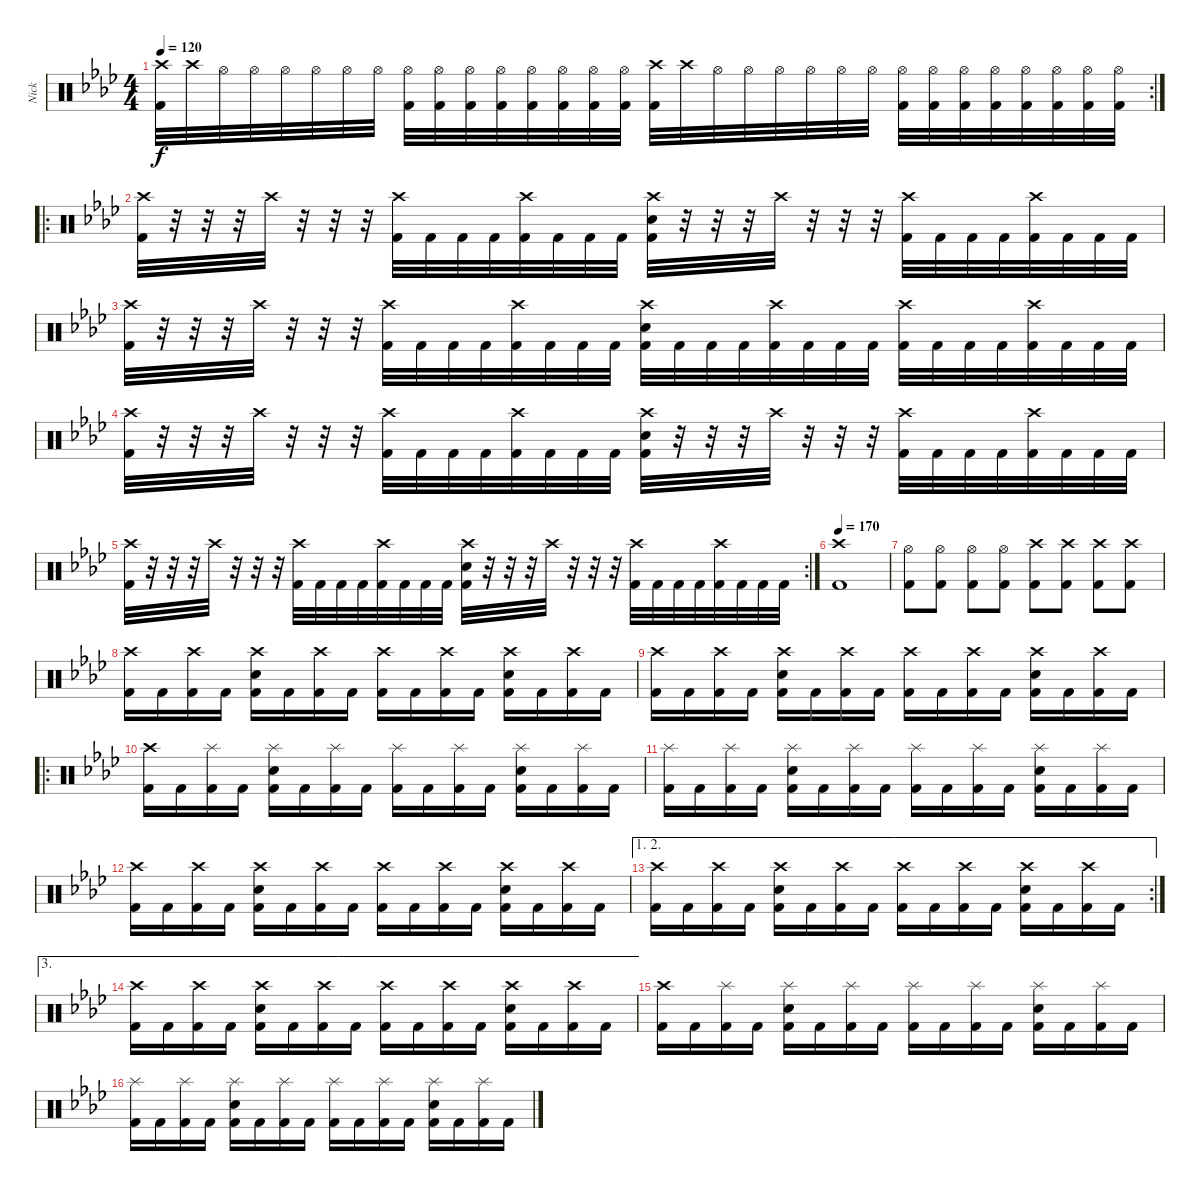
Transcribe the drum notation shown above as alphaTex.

\track ("Nick" "Nick") {instrument percussion}
\staff {score}
\articulation defaults
\rc 2
\ts (4 4)
\tempo 120
\clef neutral
\ks ab
("Crash high (hit)" "Kick (hit) 2").32{dy f} "Crash high (hit)".32 "Hi-Hat (open)".32 "Hi-Hat (open)".32 "Hi-Hat (open)".32 "Hi-Hat (open)".32 "Hi-Hat (open)".32 "Hi-Hat (open)".32 ("Hi-Hat (open)" "Kick (hit) 2").32 ("Hi-Hat (open)" "Kick (hit) 2").32 ("Hi-Hat (open)" "Kick (hit) 2").32 ("Hi-Hat (open)" "Kick (hit) 2").32 ("Hi-Hat (open)" "Kick (hit) 2").32 ("Hi-Hat (open)" "Kick (hit) 2").32 ("Hi-Hat (open)" "Kick (hit) 2").32 ("Hi-Hat (open)" "Kick (hit) 2").32 ("Crash high (hit)" "Kick (hit) 2").32 "Crash high (hit)".32 "Hi-Hat (open)".32 "Hi-Hat (open)".32 "Hi-Hat (open)".32 "Hi-Hat (open)".32 "Hi-Hat (open)".32 "Hi-Hat (open)".32 ("Hi-Hat (open)" "Kick (hit) 2").32 ("Hi-Hat (open)" "Kick (hit) 2").32 ("Hi-Hat (open)" "Kick (hit) 2").32 ("Hi-Hat (open)" "Kick (hit) 2").32 ("Hi-Hat (open)" "Kick (hit) 2").32 ("Hi-Hat (open)" "Kick (hit) 2").32 ("Hi-Hat (open)" "Kick (hit) 2").32 ("Hi-Hat (open)" "Kick (hit) 2").32 |
\ro
("Crash high (hit)" "Kick (hit) 2").32 r.32 r.32 r.32 "Crash high (hit)".32 r.32 r.32 r.32 ("Crash high (hit)" "Kick (hit) 2").32 "Kick (hit) 2".32 "Kick (hit) 2".32 "Kick (hit) 2".32 ("Crash high (hit)" "Kick (hit) 2").32 "Kick (hit) 2".32 "Kick (hit) 2".32 "Kick (hit) 2".32 ("Crash high (hit)" "Snare (hit) 2" "Kick (hit) 2").32 r.32 r.32 r.32 "Crash high (hit)".32 r.32 r.32 r.32 ("Crash high (hit)" "Kick (hit) 2").32 "Kick (hit) 2".32 "Kick (hit) 2".32 "Kick (hit) 2".32 ("Crash high (hit)" "Kick (hit) 2").32 "Kick (hit) 2".32 "Kick (hit) 2".32 "Kick (hit) 2".32 |
("Crash high (hit)" "Kick (hit) 2").32 r.32 r.32 r.32 "Crash high (hit)".32 r.32 r.32 r.32 ("Crash high (hit)" "Kick (hit) 2").32 "Kick (hit) 2".32 "Kick (hit) 2".32 "Kick (hit) 2".32 ("Crash high (hit)" "Kick (hit) 2").32 "Kick (hit) 2".32 "Kick (hit) 2".32 "Kick (hit) 2".32 ("Crash high (hit)" "Snare (hit) 2" "Kick (hit) 2").32 "Kick (hit) 2".32 "Kick (hit) 2".32 "Kick (hit) 2".32 ("Crash high (hit)" "Kick (hit) 2").32 "Kick (hit) 2".32 "Kick (hit) 2".32 "Kick (hit) 2".32 ("Crash high (hit)" "Kick (hit) 2").32 "Kick (hit) 2".32 "Kick (hit) 2".32 "Kick (hit) 2".32 ("Crash high (hit)" "Kick (hit) 2").32 "Kick (hit) 2".32 "Kick (hit) 2".32 "Kick (hit) 2".32 |
("Crash high (hit)" "Kick (hit) 2").32 r.32 r.32 r.32 "Crash high (hit)".32 r.32 r.32 r.32 ("Crash high (hit)" "Kick (hit) 2").32 "Kick (hit) 2".32 "Kick (hit) 2".32 "Kick (hit) 2".32 ("Crash high (hit)" "Kick (hit) 2").32 "Kick (hit) 2".32 "Kick (hit) 2".32 "Kick (hit) 2".32 ("Crash high (hit)" "Snare (hit) 2" "Kick (hit) 2").32 r.32 r.32 r.32 "Crash high (hit)".32 r.32 r.32 r.32 ("Crash high (hit)" "Kick (hit) 2").32 "Kick (hit) 2".32 "Kick (hit) 2".32 "Kick (hit) 2".32 ("Crash high (hit)" "Kick (hit) 2").32 "Kick (hit) 2".32 "Kick (hit) 2".32 "Kick (hit) 2".32 |
\rc 2
("Crash high (hit)" "Kick (hit) 2").32 r.32 r.32 r.32 "Crash high (hit)".32 r.32 r.32 r.32 ("Crash high (hit)" "Kick (hit) 2").32 "Kick (hit) 2".32 "Kick (hit) 2".32 "Kick (hit) 2".32 ("Crash high (hit)" "Kick (hit) 2").32 "Kick (hit) 2".32 "Kick (hit) 2".32 "Kick (hit) 2".32 ("Crash high (hit)" "Snare (hit) 2" "Kick (hit) 2").32 r.32 r.32 r.32 "Crash high (hit)".32 r.32 r.32 r.32 ("Crash high (hit)" "Kick (hit) 2").32 "Kick (hit) 2".32 "Kick (hit) 2".32 "Kick (hit) 2".32 ("Crash high (hit)" "Kick (hit) 2").32 "Kick (hit) 2".32 "Kick (hit) 2".32 "Kick (hit) 2".32 |
\tempo 170
("Crash high (hit)" "Kick (hit) 2").1 |
("Hi-Hat (open)" "Kick (hit) 2").8 ("Hi-Hat (open)" "Kick (hit) 2").8 ("Hi-Hat (open)" "Kick (hit) 2").8 ("Hi-Hat (open)" "Kick (hit) 2").8 ("Crash high (hit)" "Kick (hit) 2").8 ("Crash high (hit)" "Kick (hit) 2").8 ("Crash high (hit)" "Kick (hit) 2").8 ("Crash high (hit)" "Kick (hit) 2").8 |
("Crash high (hit)" "Kick (hit) 2").16 "Kick (hit) 2".16 ("Crash high (hit)" "Kick (hit) 2").16 "Kick (hit) 2".16 ("Crash high (hit)" "Snare (hit) 2" "Kick (hit) 2").16 "Kick (hit) 2".16 ("Crash high (hit)" "Kick (hit) 2").16 "Kick (hit) 2".16 ("Crash high (hit)" "Kick (hit) 2").16 "Kick (hit) 2".16 ("Crash high (hit)" "Kick (hit) 2").16 "Kick (hit) 2".16 ("Crash high (hit)" "Snare (hit) 2" "Kick (hit) 2").16 "Kick (hit) 2".16 ("Crash high (hit)" "Kick (hit) 2").16 "Kick (hit) 2".16 |
("Crash high (hit)" "Kick (hit) 2").16 "Kick (hit) 2".16 ("Crash high (hit)" "Kick (hit) 2").16 "Kick (hit) 2".16 ("Crash high (hit)" "Snare (hit) 2" "Kick (hit) 2").16 "Kick (hit) 2".16 ("Crash high (hit)" "Kick (hit) 2").16 "Kick (hit) 2".16 ("Crash high (hit)" "Kick (hit) 2").16 "Kick (hit) 2".16 ("Crash high (hit)" "Kick (hit) 2").16 "Kick (hit) 2".16 ("Crash high (hit)" "Snare (hit) 2" "Kick (hit) 2").16 "Kick (hit) 2".16 ("Crash high (hit)" "Kick (hit) 2").16 "Kick (hit) 2".16 |
\ro
("Crash high (hit)" "Kick (hit) 2").16 "Kick (hit) 2".16 ("Splash (hit)" "Kick (hit) 2").16 "Kick (hit) 2".16 ("Splash (hit)" "Snare (hit) 2" "Kick (hit) 2").16 "Kick (hit) 2".16 ("Splash (hit)" "Kick (hit) 2").16 "Kick (hit) 2".16 ("Splash (hit)" "Kick (hit) 2").16 "Kick (hit) 2".16 ("Splash (hit)" "Kick (hit) 2").16 "Kick (hit) 2".16 ("Splash (hit)" "Snare (hit) 2" "Kick (hit) 2").16 "Kick (hit) 2".16 ("Splash (hit)" "Kick (hit) 2").16 "Kick (hit) 2".16 |
("Splash (hit)" "Kick (hit) 2").16 "Kick (hit) 2".16 ("Splash (hit)" "Kick (hit) 2").16 "Kick (hit) 2".16 ("Splash (hit)" "Snare (hit) 2" "Kick (hit) 2").16 "Kick (hit) 2".16 ("Splash (hit)" "Kick (hit) 2").16 "Kick (hit) 2".16 ("Splash (hit)" "Kick (hit) 2").16 "Kick (hit) 2".16 ("Splash (hit)" "Kick (hit) 2").16 "Kick (hit) 2".16 ("Splash (hit)" "Snare (hit) 2" "Kick (hit) 2").16 "Kick (hit) 2".16 ("Splash (hit)" "Kick (hit) 2").16 "Kick (hit) 2".16 |
("Crash high (hit)" "Kick (hit) 2").16 "Kick (hit) 2".16 ("Crash high (hit)" "Kick (hit) 2").16 "Kick (hit) 2".16 ("Crash high (hit)" "Snare (hit) 2" "Kick (hit) 2").16 "Kick (hit) 2".16 ("Crash high (hit)" "Kick (hit) 2").16 "Kick (hit) 2".16 ("Crash high (hit)" "Kick (hit) 2").16 "Kick (hit) 2".16 ("Crash high (hit)" "Kick (hit) 2").16 "Kick (hit) 2".16 ("Crash high (hit)" "Snare (hit) 2" "Kick (hit) 2").16 "Kick (hit) 2".16 ("Crash high (hit)" "Kick (hit) 2").16 "Kick (hit) 2".16 |
\ae (1 2)
\rc 2
("Crash high (hit)" "Kick (hit) 2").16 "Kick (hit) 2".16 ("Crash high (hit)" "Kick (hit) 2").16 "Kick (hit) 2".16 ("Crash high (hit)" "Snare (hit) 2" "Kick (hit) 2").16 "Kick (hit) 2".16 ("Crash high (hit)" "Kick (hit) 2").16 "Kick (hit) 2".16 ("Crash high (hit)" "Kick (hit) 2").16 "Kick (hit) 2".16 ("Crash high (hit)" "Kick (hit) 2").16 "Kick (hit) 2".16 ("Crash high (hit)" "Snare (hit) 2" "Kick (hit) 2").16 "Kick (hit) 2".16 ("Crash high (hit)" "Kick (hit) 2").16 "Kick (hit) 2".16 |
\ae 3
("Crash high (hit)" "Kick (hit) 2").16 "Kick (hit) 2".16 ("Crash high (hit)" "Kick (hit) 2").16 "Kick (hit) 2".16 ("Crash high (hit)" "Snare (hit) 2" "Kick (hit) 2").16 "Kick (hit) 2".16 ("Crash high (hit)" "Kick (hit) 2").16 "Kick (hit) 2".16 ("Crash high (hit)" "Kick (hit) 2").16 "Kick (hit) 2".16 ("Crash high (hit)" "Kick (hit) 2").16 "Kick (hit) 2".16 ("Crash high (hit)" "Snare (hit) 2" "Kick (hit) 2").16 "Kick (hit) 2".16 ("Crash high (hit)" "Kick (hit) 2").16 "Kick (hit) 2".16 |
("Crash high (hit)" "Kick (hit) 2").16 "Kick (hit) 2".16 ("Splash (hit)" "Kick (hit) 2").16 "Kick (hit) 2".16 ("Splash (hit)" "Snare (hit) 2" "Kick (hit) 2").16 "Kick (hit) 2".16 ("Splash (hit)" "Kick (hit) 2").16 "Kick (hit) 2".16 ("Splash (hit)" "Kick (hit) 2").16 "Kick (hit) 2".16 ("Splash (hit)" "Kick (hit) 2").16 "Kick (hit) 2".16 ("Splash (hit)" "Snare (hit) 2" "Kick (hit) 2").16 "Kick (hit) 2".16 ("Splash (hit)" "Kick (hit) 2").16 "Kick (hit) 2".16 |
("Splash (hit)" "Kick (hit) 2").16 "Kick (hit) 2".16 ("Splash (hit)" "Kick (hit) 2").16 "Kick (hit) 2".16 ("Splash (hit)" "Snare (hit) 2" "Kick (hit) 2").16 "Kick (hit) 2".16 ("Splash (hit)" "Kick (hit) 2").16 "Kick (hit) 2".16 ("Splash (hit)" "Kick (hit) 2").16 "Kick (hit) 2".16 ("Splash (hit)" "Kick (hit) 2").16 "Kick (hit) 2".16 ("Splash (hit)" "Snare (hit) 2" "Kick (hit) 2").16 "Kick (hit) 2".16 ("Splash (hit)" "Kick (hit) 2").16 "Kick (hit) 2".16
